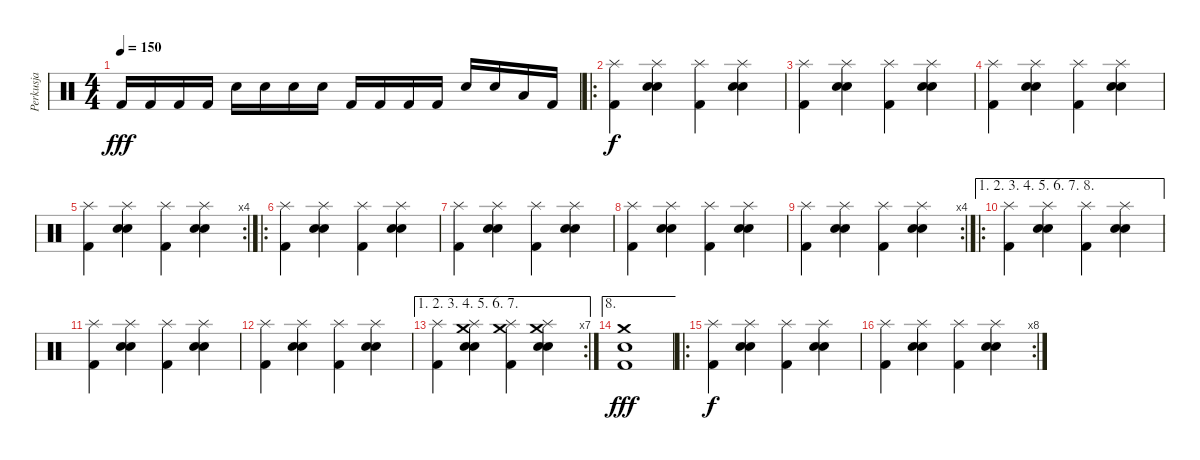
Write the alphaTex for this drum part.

\track ("Perkusja" "Perkusja") {instrument percussion}
\staff {score}
\articulation defaults
\ts (4 4)
\tempo 150
\clef neutral
\ks c "Kick (hit) 2".16{dy fff} "Kick (hit) 2".16 "Kick (hit) 2".16 "Kick (hit) 2".16 "Snare (hit) 2".16 "Snare (hit) 2".16 "Snare (hit) 2".16 "Snare (hit) 2".16 "Kick (hit) 2".16 "Kick (hit) 2".16 "Kick (hit) 2".16 "Kick (hit) 2".16 "Electric Snare (hit)".16 "Snare (hit) 2".16 "Low Floor Tom (hit)".16 "Kick (hit) 2".16
|
\ro
("Splash (hit)" "Kick (hit) 2").4{dy f} ("Splash (hit)" "Snare (hit) 2" "Snare (hit) 2").4 ("Splash (hit)" "Kick (hit) 2").4 ("Splash (hit)" "Snare (hit) 2" "Snare (hit) 2").4 |
("Splash (hit)" "Kick (hit) 2").4 ("Splash (hit)" "Snare (hit) 2" "Snare (hit) 2").4 ("Splash (hit)" "Kick (hit) 2").4 ("Splash (hit)" "Snare (hit) 2" "Snare (hit) 2").4 |
("Splash (hit)" "Kick (hit) 2").4 ("Splash (hit)" "Snare (hit) 2" "Snare (hit) 2").4 ("Splash (hit)" "Kick (hit) 2").4 ("Splash (hit)" "Snare (hit) 2" "Snare (hit) 2").4 |
\rc 4
("Splash (hit)" "Kick (hit) 2").4 ("Splash (hit)" "Snare (hit) 2" "Snare (hit) 2").4 ("Splash (hit)" "Kick (hit) 2").4 ("Splash (hit)" "Snare (hit) 2" "Snare (hit) 2").4 |
\ro
("Splash (hit)" "Kick (hit) 2").4 ("Splash (hit)" "Snare (hit) 2" "Snare (hit) 2").4 ("Splash (hit)" "Kick (hit) 2").4 ("Splash (hit)" "Snare (hit) 2" "Snare (hit) 2").4 |
("Splash (hit)" "Kick (hit) 2").4 ("Splash (hit)" "Snare (hit) 2" "Snare (hit) 2").4 ("Splash (hit)" "Kick (hit) 2").4 ("Splash (hit)" "Snare (hit) 2" "Snare (hit) 2").4 |
("Splash (hit)" "Kick (hit) 2").4 ("Splash (hit)" "Snare (hit) 2" "Snare (hit) 2").4 ("Splash (hit)" "Kick (hit) 2").4 ("Splash (hit)" "Snare (hit) 2" "Snare (hit) 2").4 |
\rc 4
("Splash (hit)" "Kick (hit) 2").4 ("Splash (hit)" "Snare (hit) 2" "Snare (hit) 2").4 ("Splash (hit)" "Kick (hit) 2").4 ("Splash (hit)" "Snare (hit) 2" "Snare (hit) 2").4 |
\ae (1 2 3 4 5 6 7 8)
\ro
("Splash (hit)" "Kick (hit) 2").4 ("Splash (hit)" "Snare (hit) 2" "Snare (hit) 2").4 ("Splash (hit)" "Kick (hit) 2").4 ("Splash (hit)" "Snare (hit) 2" "Snare (hit) 2").4 |
("Splash (hit)" "Kick (hit) 2").4 ("Splash (hit)" "Snare (hit) 2" "Snare (hit) 2").4 ("Splash (hit)" "Kick (hit) 2").4 ("Splash (hit)" "Snare (hit) 2" "Snare (hit) 2").4 |
("Splash (hit)" "Kick (hit) 2").4 ("Splash (hit)" "Snare (hit) 2" "Snare (hit) 2").4 ("Splash (hit)" "Kick (hit) 2").4 ("Splash (hit)" "Snare (hit) 2" "Snare (hit) 2").4 |
\ae (1 2 3 4 5 6 7)
\rc 7
("Splash (hit)" "Kick (hit) 2").4 ("Crash medium (hit)" "Splash (hit)" "Snare (hit) 2" "Snare (hit) 2").4 ("Crash medium (hit)" "Splash (hit)" "Kick (hit) 2").4 ("Crash medium (hit)" "Splash (hit)" "Snare (hit) 2" "Snare (hit) 2").4 |
\ae 8
("Crash medium (hit)" "Kick (hit) 2" "Snare (hit) 2"{tr (38 16)}).1{dy fff} |
\ro
("Splash (hit)" "Kick (hit) 2").4{dy f} ("Splash (hit)" "Snare (hit) 2" "Snare (hit) 2").4 ("Splash (hit)" "Kick (hit) 2").4 ("Splash (hit)" "Snare (hit) 2" "Snare (hit) 2").4 |
\rc 8
("Splash (hit)" "Kick (hit) 2").4 ("Splash (hit)" "Snare (hit) 2" "Snare (hit) 2").4 ("Splash (hit)" "Kick (hit) 2").4 ("Splash (hit)" "Snare (hit) 2" "Snare (hit) 2").4
